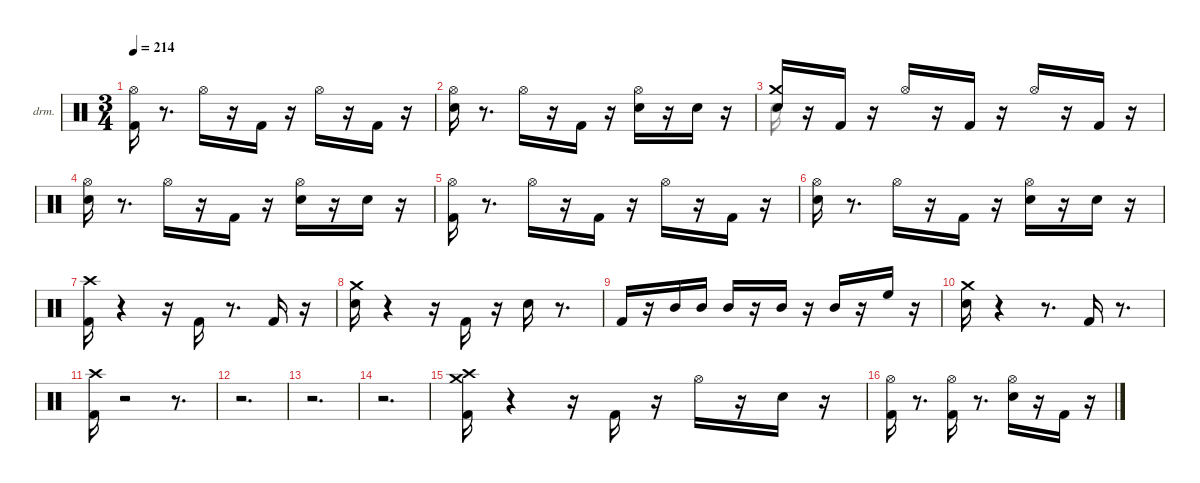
\hideDynamics
\bracketExtendMode nobrackets
\firstSystemTrackNameOrientation horizontal
\otherSystemsTrackNameOrientation horizontal
\track ("EZdrummer 3" "drm.") {instrument percussion}
\staff {score}
\articulation defaults
\voice
\ts (3 4)
\tempo 214
\clef neutral
\ks aminor
("Kick (hit) 2" "Hi-Hat (open)"{acc #}).16{dy ff beam Down} r.8{d beam Down} "Hi-Hat (open)"{acc #}.16{dy mf beam Down} r.16{beam Down} "Kick (hit) 2".16{dy p beam Up} r.16{beam Up} "Hi-Hat (open)"{acc #}.16{dy mp beam Down} r.16{beam Down} "Kick (hit) 2".16{dy mf beam Up} r.16{beam Up} |
("Snare (hit) 2" "Hi-Hat (open)"{acc #}).16{beam Down} r.8{d beam Down} "Hi-Hat (open)"{acc #}.16{dy mp beam Down} r.16{beam Down} "Kick (hit) 2".16{dy f beam Up} r.16{beam Up} ("Snare (hit) 2" "Hi-Hat (open)"{acc #}).16{dy mp beam Down} r.16{beam Down} "Snare (hit) 2".16{dy pp beam Down} r.16{beam Down} |
("Snare (hit) 2" "Crash medium (hit)").16{dy f beam Up} r.16{beam Up} "Kick (hit) 2".16{beam Up} r.16{beam Up} "Hi-Hat (open)"{acc #}.16{dy mf beam Up} r.16{beam Up} "Kick (hit) 2".16{dy p beam Up} r.16{beam Up} "Hi-Hat (open)"{acc #}.16{dy mp beam Up} r.16{beam Up} "Kick (hit) 2".16{dy mf beam Up} r.16{beam Up} |
("Snare (hit) 2" "Hi-Hat (open)"{acc #}).16{dy ff beam Down} r.8{d beam Down} "Hi-Hat (open)"{acc #}.16{dy mf beam Down} r.16{beam Down} "Kick (hit) 2".16{dy f beam Up} r.16{beam Up} ("Snare (hit) 2" "Hi-Hat (open)"{acc #}).16{dy mp beam Down} r.16{beam Down} "Snare (hit) 2".16{dy pp beam Down} r.16{beam Down} |
("Kick (hit) 2" "Hi-Hat (open)"{acc #}).16{dy ff beam Down} r.8{d beam Down} "Hi-Hat (open)"{acc #}.16{dy mf beam Down} r.16{beam Down} "Kick (hit) 2".16{dy p beam Up} r.16{beam Up} "Hi-Hat (open)"{acc #}.16{dy mp beam Down} r.16{beam Down} "Kick (hit) 2".16{dy mf beam Up} r.16{beam Up} |
("Snare (hit) 2" "Hi-Hat (open)"{acc #}).16{beam Down} r.8{d beam Down} "Hi-Hat (open)"{acc #}.16{dy mp beam Down} r.16{beam Down} "Kick (hit) 2".16{dy f beam Up} r.16{beam Up} ("Snare (hit) 2" "Hi-Hat (open)"{acc #}).16{dy mp beam Down} r.16{beam Down} "Snare (hit) 2".16{dy pp beam Down} r.16{beam Down} |
("Kick (hit) 2" "Crash high (hit)"{acc #}).16{dy ff beam Down} r.4{beam Down} r.16{beam Down} "Kick (hit) 2".16{dy mf beam Up} r.8{d beam Up} "Kick (hit) 2".16{dy f beam Up} r.16{beam Up} |
("Snare (hit) 2" "Crash medium (hit)").16{beam Down} r.4{beam Down} r.16{beam Down} "Kick (hit) 2".16{dy mf beam Up} r.16{beam Up} "Snare (hit) 2".16{dy fff beam Down} r.8{d beam Down} |
"Kick (hit) 2".16{beam Up} r.16{beam Up} "Mid Tom (hit)".16{dy f beam Up} "Mid Tom (hit)".16{dy mf beam Up} "Mid Tom (hit)".16{dy fff beam Up} r.16{beam Up} "Mid Tom (hit)".16{dy ff beam Up} r.16{beam Up} "Mid Tom (hit)".16{dy mf beam Up} r.16{beam Up} "High Floor Tom (hit)".16{dy fff beam Down} r.16{beam Down} |
("Snare (hit) 2" "Crash medium (hit)").16{dy f beam Down} r.4{beam Down} r.8{d beam Down} "Kick (hit) 2".16{dy mf beam Up} r.8{d beam Up} |
("Kick (hit) 2" "Crash high (hit)"{acc #}).16{dy fff beam Down} r.2{beam Down} r.8{d beam Down} |
r.2{d beam Down} |
r.2{d beam Down} |
r.2{d beam Down} |
("Kick (hit) 2" "Crash high (hit)"{acc #} "Crash medium (hit)").16{beam Down} r.4{beam Down} r.16{beam Down} "Kick (hit) 2".16{dy ff beam Up} r.16{beam Up} "Hi-Hat (open)"{acc #}.16{dy f beam Down} r.16{beam Down} "Snare (hit) 2".16{dy ff beam Down} r.16{beam Down} |
("Kick (hit) 2" "Hi-Hat (open)"{acc #}).16{dy fff beam Down} r.8{d beam Down} ("Kick (hit) 2" "Hi-Hat (open)"{acc #}).16{dy f beam Down} r.8{d beam Down} ("Snare (hit) 2" "Hi-Hat (open)"{acc #}).16{beam Down} r.16{beam Down} "Kick (hit) 2".16{dy mp beam Up} r.16{beam Up}
\voice
\clef neutral
\ottava regular
\simile none
\ks aminor
|
|
"Snare (hit) 2".16{beam Down} |
|
|
|
|
|
|
|
|
|
|
|
|
